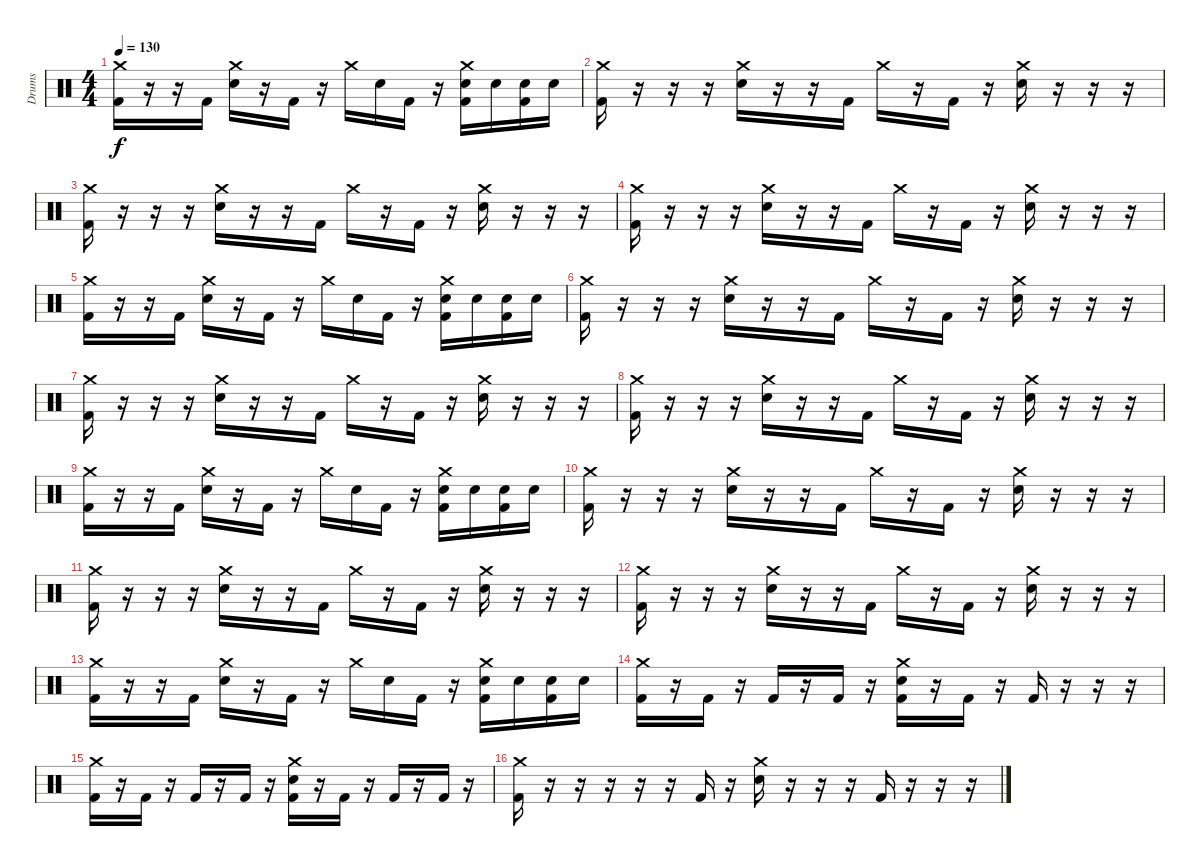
\track ("Drums" "Drums") {instrument percussion}
\staff {score}
\articulation defaults
\ts (4 4)
\tempo 130
\clef neutral
\ks c
("Crash medium (hit)" "Kick (hit) 2").16{dy f} r.16 r.16 "Kick (hit) 2".16 ("Crash medium (hit)" "Electric Snare (hit)").16 r.16 "Kick (hit) 2".16 r.16 "Crash medium (hit)".16 "Electric Snare (hit)".16 "Kick (hit) 2".16 r.16 ("Crash medium (hit)" "Electric Snare (hit)" "Kick (hit) 2").16 "Electric Snare (hit)".16 ("Electric Snare (hit)" "Kick (hit) 2").16 "Electric Snare (hit)".16 |
("Crash medium (hit)" "Kick (hit) 2").16 r.16 r.16 r.16 ("Crash medium (hit)" "Electric Snare (hit)").16 r.16 r.16 "Kick (hit) 2".16 "Crash medium (hit)".16 r.16 "Kick (hit) 2".16 r.16 ("Crash medium (hit)" "Electric Snare (hit)").16 r.16 r.16 r.16 |
("Crash medium (hit)" "Kick (hit) 2").16 r.16 r.16 r.16 ("Crash medium (hit)" "Electric Snare (hit)").16 r.16 r.16 "Kick (hit) 2".16 "Crash medium (hit)".16 r.16 "Kick (hit) 2".16 r.16 ("Crash medium (hit)" "Electric Snare (hit)").16 r.16 r.16 r.16 |
("Crash medium (hit)" "Kick (hit) 2").16 r.16 r.16 r.16 ("Crash medium (hit)" "Electric Snare (hit)").16 r.16 r.16 "Kick (hit) 2".16 "Crash medium (hit)".16 r.16 "Kick (hit) 2".16 r.16 ("Crash medium (hit)" "Electric Snare (hit)").16 r.16 r.16 r.16 |
("Crash medium (hit)" "Kick (hit) 2").16 r.16 r.16 "Kick (hit) 2".16 ("Crash medium (hit)" "Electric Snare (hit)").16 r.16 "Kick (hit) 2".16 r.16 "Crash medium (hit)".16 "Electric Snare (hit)".16 "Kick (hit) 2".16 r.16 ("Crash medium (hit)" "Electric Snare (hit)" "Kick (hit) 2").16 "Electric Snare (hit)".16 ("Electric Snare (hit)" "Kick (hit) 2").16 "Electric Snare (hit)".16 |
("Crash medium (hit)" "Kick (hit) 2").16 r.16 r.16 r.16 ("Crash medium (hit)" "Electric Snare (hit)").16 r.16 r.16 "Kick (hit) 2".16 "Crash medium (hit)".16 r.16 "Kick (hit) 2".16 r.16 ("Crash medium (hit)" "Electric Snare (hit)").16 r.16 r.16 r.16 |
("Crash medium (hit)" "Kick (hit) 2").16 r.16 r.16 r.16 ("Crash medium (hit)" "Electric Snare (hit)").16 r.16 r.16 "Kick (hit) 2".16 "Crash medium (hit)".16 r.16 "Kick (hit) 2".16 r.16 ("Crash medium (hit)" "Electric Snare (hit)").16 r.16 r.16 r.16 |
("Crash medium (hit)" "Kick (hit) 2").16 r.16 r.16 r.16 ("Crash medium (hit)" "Electric Snare (hit)").16 r.16 r.16 "Kick (hit) 2".16 "Crash medium (hit)".16 r.16 "Kick (hit) 2".16 r.16 ("Crash medium (hit)" "Electric Snare (hit)").16 r.16 r.16 r.16 |
("Crash medium (hit)" "Kick (hit) 2").16 r.16 r.16 "Kick (hit) 2".16 ("Crash medium (hit)" "Electric Snare (hit)").16 r.16 "Kick (hit) 2".16 r.16 "Crash medium (hit)".16 "Electric Snare (hit)".16 "Kick (hit) 2".16 r.16 ("Crash medium (hit)" "Electric Snare (hit)" "Kick (hit) 2").16 "Electric Snare (hit)".16 ("Electric Snare (hit)" "Kick (hit) 2").16 "Electric Snare (hit)".16 |
("Crash medium (hit)" "Kick (hit) 2").16 r.16 r.16 r.16 ("Crash medium (hit)" "Electric Snare (hit)").16 r.16 r.16 "Kick (hit) 2".16 "Crash medium (hit)".16 r.16 "Kick (hit) 2".16 r.16 ("Crash medium (hit)" "Electric Snare (hit)").16 r.16 r.16 r.16 |
("Crash medium (hit)" "Kick (hit) 2").16 r.16 r.16 r.16 ("Crash medium (hit)" "Electric Snare (hit)").16 r.16 r.16 "Kick (hit) 2".16 "Crash medium (hit)".16 r.16 "Kick (hit) 2".16 r.16 ("Crash medium (hit)" "Electric Snare (hit)").16 r.16 r.16 r.16 |
("Crash medium (hit)" "Kick (hit) 2").16 r.16 r.16 r.16 ("Crash medium (hit)" "Electric Snare (hit)").16 r.16 r.16 "Kick (hit) 2".16 "Crash medium (hit)".16 r.16 "Kick (hit) 2".16 r.16 ("Crash medium (hit)" "Electric Snare (hit)").16 r.16 r.16 r.16 |
("Crash medium (hit)" "Kick (hit) 2").16 r.16 r.16 "Kick (hit) 2".16 ("Crash medium (hit)" "Electric Snare (hit)").16 r.16 "Kick (hit) 2".16 r.16 "Crash medium (hit)".16 "Electric Snare (hit)".16 "Kick (hit) 2".16 r.16 ("Crash medium (hit)" "Electric Snare (hit)" "Kick (hit) 2").16 "Electric Snare (hit)".16 ("Electric Snare (hit)" "Kick (hit) 2").16 "Electric Snare (hit)".16 |
("Crash medium (hit)" "Kick (hit) 2").16 r.16 "Kick (hit) 2".16 r.16 "Kick (hit) 2".16 r.16 "Kick (hit) 2".16 r.16 ("Crash medium (hit)" "Electric Snare (hit)" "Kick (hit) 2").16 r.16 "Kick (hit) 2".16 r.16 "Kick (hit) 2".16 r.16 r.16 r.16 |
("Crash medium (hit)" "Kick (hit) 2").16 r.16 "Kick (hit) 2".16 r.16 "Kick (hit) 2".16 r.16 "Kick (hit) 2".16 r.16 ("Crash medium (hit)" "Electric Snare (hit)" "Kick (hit) 2").16 r.16 "Kick (hit) 2".16 r.16 "Kick (hit) 2".16 r.16 "Kick (hit) 2".16 r.16 |
("Crash medium (hit)" "Kick (hit) 2").16 r.16 r.16 r.16 r.16 r.16 "Kick (hit) 2".16 r.16 ("Crash medium (hit)" "Electric Snare (hit)").16 r.16 r.16 r.16 "Kick (hit) 2".16 r.16 r.16 r.16
